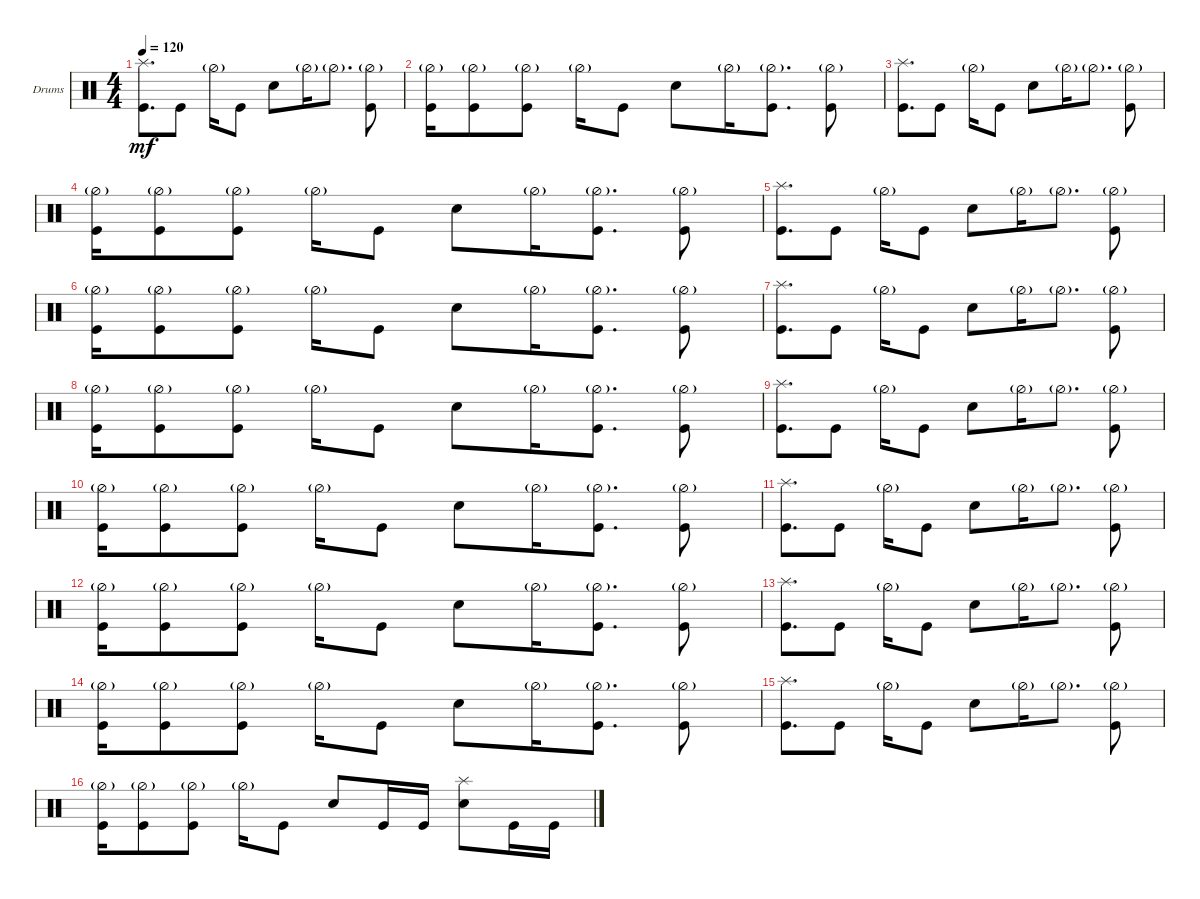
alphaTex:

\defaultSystemsLayout 4
\bracketExtendMode groupsimilarinstruments
\firstSystemTrackNameOrientation horizontal
\otherSystemsTrackNameOrientation horizontal
\track ("Kai" "Drums") {instrument percussion}
\staff {score}
\articulation defaults
\ts (4 4)
\tempo 120
\clef neutral
\ks c
("Kick (hit)" "Splash (hit)").8{d dy mf} "Kick (hit)".8 "Hi-Hat (half)"{g}.16 "Kick (hit)".8 "Snare (hit) 2".8 "Hi-Hat (half)"{g}.16 "Hi-Hat (half)"{g}.8{d} ("Kick (hit)" "Hi-Hat (half)"{g}).8 |
("Kick (hit)" "Hi-Hat (half)"{g}).16 ("Kick (hit)" "Hi-Hat (half)"{g}).8 ("Kick (hit)" "Hi-Hat (half)"{g}).8 "Hi-Hat (half)"{g}.16 "Kick (hit)".8 "Snare (hit) 2".8 "Hi-Hat (half)"{g}.16 ("Hi-Hat (half)"{g} "Kick (hit)").8{d} ("Kick (hit)" "Hi-Hat (half)"{g}).8 |
("Kick (hit)" "Splash (hit)").8{d} "Kick (hit)".8 "Hi-Hat (half)"{g}.16 "Kick (hit)".8 "Snare (hit) 2".8 "Hi-Hat (half)"{g}.16 "Hi-Hat (half)"{g}.8{d} ("Kick (hit)" "Hi-Hat (half)"{g}).8 |
("Kick (hit)" "Hi-Hat (half)"{g}).16 ("Kick (hit)" "Hi-Hat (half)"{g}).8 ("Kick (hit)" "Hi-Hat (half)"{g}).8 "Hi-Hat (half)"{g}.16 "Kick (hit)".8 "Snare (hit) 2".8 "Hi-Hat (half)"{g}.16 ("Hi-Hat (half)"{g} "Kick (hit)").8{d} ("Kick (hit)" "Hi-Hat (half)"{g}).8 |
("Kick (hit)" "Splash (hit)").8{d} "Kick (hit)".8 "Hi-Hat (half)"{g}.16 "Kick (hit)".8 "Snare (hit) 2".8 "Hi-Hat (half)"{g}.16 "Hi-Hat (half)"{g}.8{d} ("Kick (hit)" "Hi-Hat (half)"{g}).8 |
("Kick (hit)" "Hi-Hat (half)"{g}).16 ("Kick (hit)" "Hi-Hat (half)"{g}).8 ("Kick (hit)" "Hi-Hat (half)"{g}).8 "Hi-Hat (half)"{g}.16 "Kick (hit)".8 "Snare (hit) 2".8 "Hi-Hat (half)"{g}.16 ("Hi-Hat (half)"{g} "Kick (hit)").8{d} ("Kick (hit)" "Hi-Hat (half)"{g}).8 |
("Kick (hit)" "Splash (hit)").8{d} "Kick (hit)".8 "Hi-Hat (half)"{g}.16 "Kick (hit)".8 "Snare (hit) 2".8 "Hi-Hat (half)"{g}.16 "Hi-Hat (half)"{g}.8{d} ("Kick (hit)" "Hi-Hat (half)"{g}).8 |
("Kick (hit)" "Hi-Hat (half)"{g}).16 ("Kick (hit)" "Hi-Hat (half)"{g}).8 ("Kick (hit)" "Hi-Hat (half)"{g}).8 "Hi-Hat (half)"{g}.16 "Kick (hit)".8 "Snare (hit) 2".8 "Hi-Hat (half)"{g}.16 ("Hi-Hat (half)"{g} "Kick (hit)").8{d} ("Kick (hit)" "Hi-Hat (half)"{g}).8 |
("Kick (hit)" "Splash (hit)").8{d} "Kick (hit)".8 "Hi-Hat (half)"{g}.16 "Kick (hit)".8 "Snare (hit) 2".8 "Hi-Hat (half)"{g}.16 "Hi-Hat (half)"{g}.8{d} ("Kick (hit)" "Hi-Hat (half)"{g}).8 |
("Kick (hit)" "Hi-Hat (half)"{g}).16 ("Kick (hit)" "Hi-Hat (half)"{g}).8 ("Kick (hit)" "Hi-Hat (half)"{g}).8 "Hi-Hat (half)"{g}.16 "Kick (hit)".8 "Snare (hit) 2".8 "Hi-Hat (half)"{g}.16 ("Hi-Hat (half)"{g} "Kick (hit)").8{d} ("Kick (hit)" "Hi-Hat (half)"{g}).8 |
("Kick (hit)" "Splash (hit)").8{d} "Kick (hit)".8 "Hi-Hat (half)"{g}.16 "Kick (hit)".8 "Snare (hit) 2".8 "Hi-Hat (half)"{g}.16 "Hi-Hat (half)"{g}.8{d} ("Kick (hit)" "Hi-Hat (half)"{g}).8 |
("Kick (hit)" "Hi-Hat (half)"{g}).16 ("Kick (hit)" "Hi-Hat (half)"{g}).8 ("Kick (hit)" "Hi-Hat (half)"{g}).8 "Hi-Hat (half)"{g}.16 "Kick (hit)".8 "Snare (hit) 2".8 "Hi-Hat (half)"{g}.16 ("Hi-Hat (half)"{g} "Kick (hit)").8{d} ("Kick (hit)" "Hi-Hat (half)"{g}).8 |
("Kick (hit)" "Splash (hit)").8{d} "Kick (hit)".8 "Hi-Hat (half)"{g}.16 "Kick (hit)".8 "Snare (hit) 2".8 "Hi-Hat (half)"{g}.16 "Hi-Hat (half)"{g}.8{d} ("Kick (hit)" "Hi-Hat (half)"{g}).8 |
("Kick (hit)" "Hi-Hat (half)"{g}).16 ("Kick (hit)" "Hi-Hat (half)"{g}).8 ("Kick (hit)" "Hi-Hat (half)"{g}).8 "Hi-Hat (half)"{g}.16 "Kick (hit)".8 "Snare (hit) 2".8 "Hi-Hat (half)"{g}.16 ("Hi-Hat (half)"{g} "Kick (hit)").8{d} ("Kick (hit)" "Hi-Hat (half)"{g}).8 |
("Kick (hit)" "Splash (hit)").8{d} "Kick (hit)".8 "Hi-Hat (half)"{g}.16 "Kick (hit)".8 "Snare (hit) 2".8 "Hi-Hat (half)"{g}.16 "Hi-Hat (half)"{g}.8{d} ("Kick (hit)" "Hi-Hat (half)"{g}).8 |
("Kick (hit)" "Hi-Hat (half)"{g}).16 ("Kick (hit)" "Hi-Hat (half)"{g}).8 ("Kick (hit)" "Hi-Hat (half)"{g}).8 "Hi-Hat (half)"{g}.16 "Kick (hit)".8 "Snare (hit) 2".8 "Kick (hit)".16 "Kick (hit)".16 ("Snare (hit) 2" "Splash (hit)").8 "Kick (hit)".16 "Kick (hit)".16
